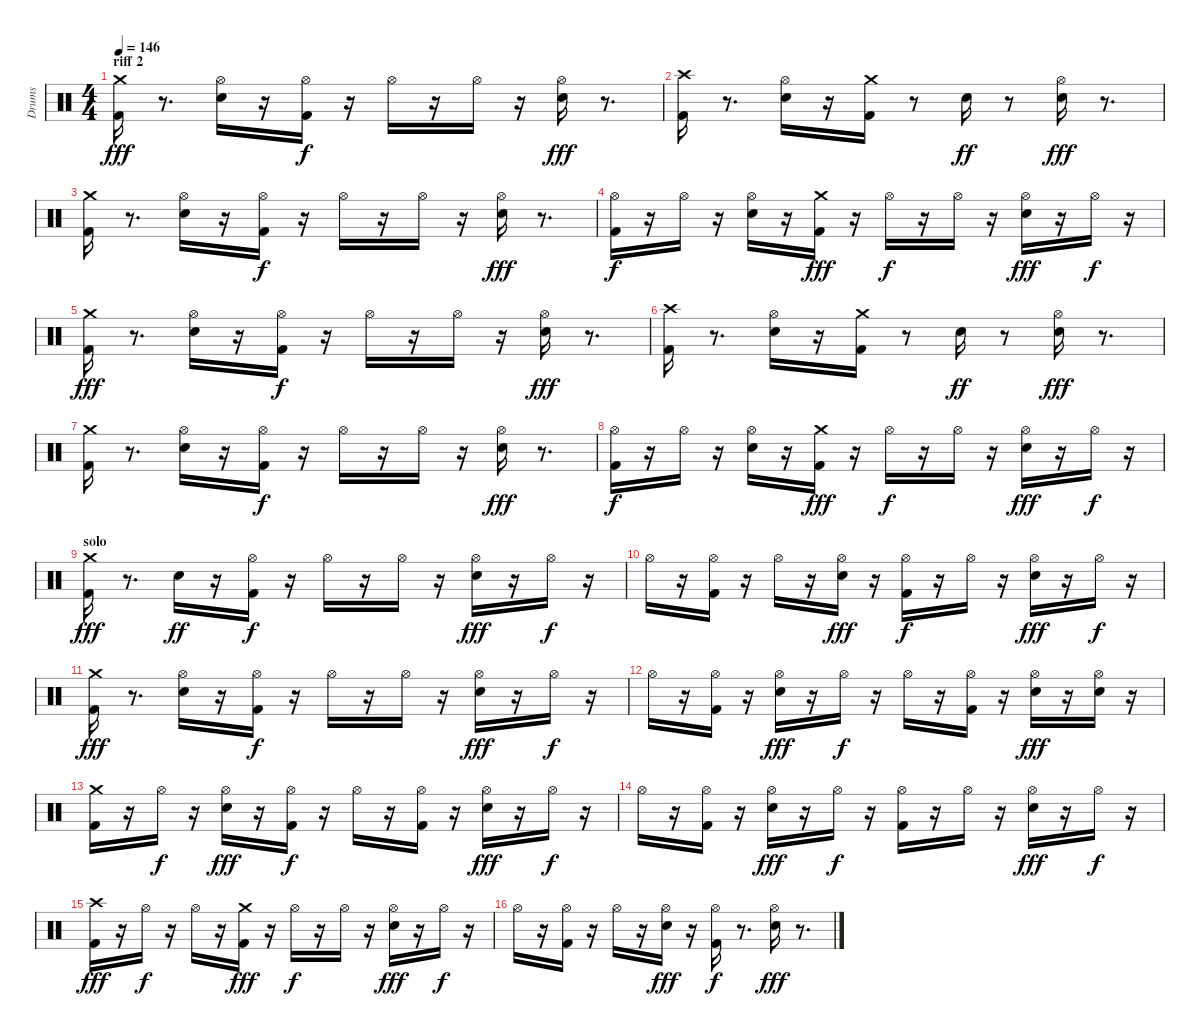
\track ("Drums" "Drums") {instrument percussion}
\staff {score}
\articulation defaults
\ts (4 4)
\section ("" "riff 2")
\tempo 146
\clef neutral
\ks c
("Kick (hit) 2" "Crash medium (hit)").16{dy fff} r.8{d} ("Snare (hit) 2" "Hi-Hat (open)").16 r.16 ("Kick (hit) 2" "Hi-Hat (open)").16{dy f} r.16 "Hi-Hat (open)".16 r.16 "Hi-Hat (open)".16 r.16 ("Snare (hit) 2" "Hi-Hat (open)").16{dy fff} r.8{d} |
("Kick (hit) 2" "Crash high (hit)").16 r.8{d} ("Snare (hit) 2" "Hi-Hat (open)").16 r.16 ("Kick (hit) 2" "Crash medium (hit)").16 r.8 "Snare (hit) 2".16{dy ff} r.8 ("Snare (hit) 2" "Hi-Hat (open)").16{dy fff} r.8{d} |
("Kick (hit) 2" "Crash medium (hit)").16 r.8{d} ("Snare (hit) 2" "Hi-Hat (open)").16 r.16 ("Kick (hit) 2" "Hi-Hat (open)").16{dy f} r.16 "Hi-Hat (open)".16 r.16 "Hi-Hat (open)".16 r.16 ("Snare (hit) 2" "Hi-Hat (open)").16{dy fff} r.8{d} |
("Kick (hit) 2" "Hi-Hat (open)").16{dy f} r.16 "Hi-Hat (open)".16 r.16 ("Snare (hit) 2" "Hi-Hat (open)").16 r.16 ("Kick (hit) 2" "Crash medium (hit)").16{dy fff} r.16 "Hi-Hat (open)".16{dy f} r.16 "Hi-Hat (open)".16 r.16 ("Snare (hit) 2" "Hi-Hat (open)").16{dy fff} r.16 "Hi-Hat (open)".16{dy f} r.16 |
("Kick (hit) 2" "Crash medium (hit)").16{dy fff} r.8{d} ("Snare (hit) 2" "Hi-Hat (open)").16 r.16 ("Kick (hit) 2" "Hi-Hat (open)").16{dy f} r.16 "Hi-Hat (open)".16 r.16 "Hi-Hat (open)".16 r.16 ("Snare (hit) 2" "Hi-Hat (open)").16{dy fff} r.8{d} |
("Kick (hit) 2" "Crash high (hit)").16 r.8{d} ("Snare (hit) 2" "Hi-Hat (open)").16 r.16 ("Kick (hit) 2" "Crash medium (hit)").16 r.8 "Snare (hit) 2".16{dy ff} r.8 ("Snare (hit) 2" "Hi-Hat (open)").16{dy fff} r.8{d} |
("Kick (hit) 2" "Crash medium (hit)").16 r.8{d} ("Snare (hit) 2" "Hi-Hat (open)").16 r.16 ("Kick (hit) 2" "Hi-Hat (open)").16{dy f} r.16 "Hi-Hat (open)".16 r.16 "Hi-Hat (open)".16 r.16 ("Snare (hit) 2" "Hi-Hat (open)").16{dy fff} r.8{d} |
("Kick (hit) 2" "Hi-Hat (open)").16{dy f} r.16 "Hi-Hat (open)".16 r.16 ("Snare (hit) 2" "Hi-Hat (open)").16 r.16 ("Kick (hit) 2" "Crash medium (hit)").16{dy fff} r.16 "Hi-Hat (open)".16{dy f} r.16 "Hi-Hat (open)".16 r.16 ("Snare (hit) 2" "Hi-Hat (open)").16{dy fff} r.16 "Hi-Hat (open)".16{dy f} r.16 |
\section ("" "solo")
("Kick (hit) 2" "Crash medium (hit)").16{dy fff} r.8{d} "Snare (hit) 2".16{dy ff} r.16 ("Kick (hit) 2" "Hi-Hat (open)").16{dy f} r.16 "Hi-Hat (open)".16 r.16 "Hi-Hat (open)".16 r.16 ("Snare (hit) 2" "Hi-Hat (open)").16{dy fff} r.16 "Hi-Hat (open)".16{dy f} r.16 |
"Hi-Hat (open)".16 r.16 ("Kick (hit) 2" "Hi-Hat (open)").16 r.16 "Hi-Hat (open)".16 r.16 ("Snare (hit) 2" "Hi-Hat (open)").16{dy fff} r.16 ("Kick (hit) 2" "Hi-Hat (open)").16{dy f} r.16 "Hi-Hat (open)".16 r.16 ("Snare (hit) 2" "Hi-Hat (open)").16{dy fff} r.16 "Hi-Hat (open)".16{dy f} r.16 |
("Kick (hit) 2" "Crash medium (hit)").16{dy fff} r.8{d} ("Snare (hit) 2" "Hi-Hat (open)").16 r.16 ("Kick (hit) 2" "Hi-Hat (open)").16{dy f} r.16 "Hi-Hat (open)".16 r.16 "Hi-Hat (open)".16 r.16 ("Snare (hit) 2" "Hi-Hat (open)").16{dy fff} r.16 "Hi-Hat (open)".16{dy f} r.16 |
"Hi-Hat (open)".16 r.16 ("Kick (hit) 2" "Hi-Hat (open)").16 r.16 ("Snare (hit) 2" "Hi-Hat (open)").16{dy fff} r.16 "Hi-Hat (open)".16{dy f} r.16 "Hi-Hat (open)".16 r.16 ("Kick (hit) 2" "Hi-Hat (open)").16 r.16 ("Snare (hit) 2" "Hi-Hat (open)").16{dy fff} r.16 ("Snare (hit) 2" "Hi-Hat (open)").16 r.16 |
("Kick (hit) 2" "Crash medium (hit)").16 r.16 "Hi-Hat (open)".16{dy f} r.16 ("Snare (hit) 2" "Hi-Hat (open)").16{dy fff} r.16 ("Kick (hit) 2" "Hi-Hat (open)").16{dy f} r.16 "Hi-Hat (open)".16 r.16 ("Kick (hit) 2" "Hi-Hat (open)").16 r.16 ("Snare (hit) 2" "Hi-Hat (open)").16{dy fff} r.16 "Hi-Hat (open)".16{dy f} r.16 |
"Hi-Hat (open)".16 r.16 ("Kick (hit) 2" "Hi-Hat (open)").16 r.16 ("Snare (hit) 2" "Hi-Hat (open)").16{dy fff} r.16 "Hi-Hat (open)".16{dy f} r.16 ("Kick (hit) 2" "Hi-Hat (open)").16 r.16 "Hi-Hat (open)".16 r.16 ("Snare (hit) 2" "Hi-Hat (open)").16{dy fff} r.16 "Hi-Hat (open)".16{dy f} r.16 |
("Kick (hit) 2" "Crash high (hit)").16{dy fff} r.16 "Hi-Hat (open)".16{dy f} r.16 "Hi-Hat (open)".16 r.16 ("Kick (hit) 2" "Crash medium (hit)").16{dy fff} r.16 "Hi-Hat (open)".16{dy f} r.16 "Hi-Hat (open)".16 r.16 ("Snare (hit) 2" "Hi-Hat (open)").16{dy fff} r.16 "Hi-Hat (open)".16{dy f} r.16 |
"Hi-Hat (open)".16 r.16 ("Kick (hit) 2" "Hi-Hat (open)").16 r.16 "Hi-Hat (open)".16 r.16 ("Snare (hit) 2" "Hi-Hat (open)").16{dy fff} r.16 ("Kick (hit) 2" "Hi-Hat (open)").16{dy f} r.8{d} ("Snare (hit) 2" "Hi-Hat (open)").16{dy fff} r.8{d}
